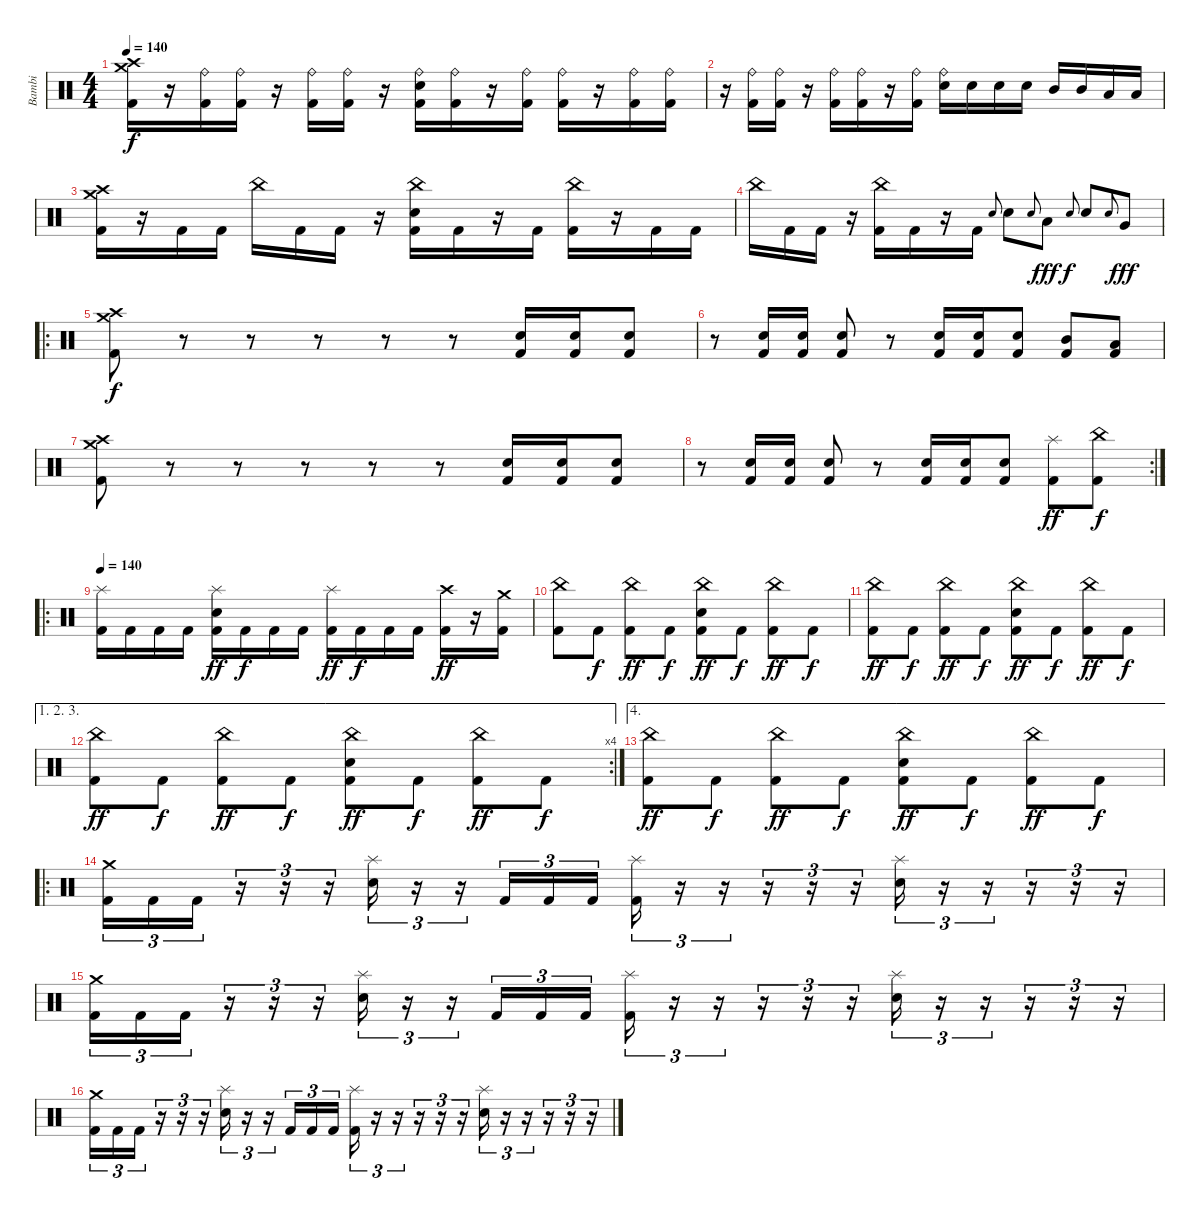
\track ("Bambi" "Bambi") {instrument percussion}
\staff {score}
\articulation defaults
\ts (4 4)
\tempo 140
\clef neutral
\ks c
("Kick (hit) 2" "Crash high (hit)" "Crash medium (hit)").16{dy f} r.16 ("Ride (bell)" "Kick (hit) 2").16 ("Ride (bell)" "Kick (hit) 2").16 r.16 ("Ride (bell)" "Kick (hit) 2").16 ("Kick (hit) 2" "Ride (bell)").16 r.16 ("Ride (bell)" "Electric Snare (hit)" "Kick (hit) 2").16 ("Kick (hit) 2" "Ride (bell)").16 r.16 ("Kick (hit) 2" "Ride (bell)").16 ("Kick (hit) 2" "Ride (bell)").16 r.16 ("Ride (bell)" "Kick (hit) 2").16 ("Kick (hit) 2" "Ride (bell)").16 |
r.16 ("Ride (bell)" "Kick (hit) 2").16 ("Ride (bell)" "Kick (hit) 2").16 r.16 ("Ride (bell)" "Kick (hit) 2").16 ("Ride (bell)" "Kick (hit) 2").16 r.16 ("Ride (bell)" "Kick (hit) 2").16 ("Ride (bell)" "Electric Snare (hit)").16 "Electric Snare (hit)".16 "Electric Snare (hit)".16 "Electric Snare (hit)".16 "Mid Tom (hit)".16 "Mid Tom (hit)".16 "Low Tom (hit)".16 "Low Tom (hit)".16 |
("Kick (hit) 2" "Crash high (hit)" "Crash medium (hit)").16 r.16 "Kick (hit) 2".16 "Kick (hit) 2".16 "China (hit)".16 "Kick (hit) 2".16 "Kick (hit) 2".16 r.16 ("China (hit)" "Electric Snare (hit)" "Kick (hit) 2").16 "Kick (hit) 2".16 r.16 "Kick (hit) 2".16 ("Kick (hit) 2" "China (hit)").16 r.16 "Kick (hit) 2".16 "Kick (hit) 2".16 |
"China (hit)".16 "Kick (hit) 2".16 "Kick (hit) 2".16 r.16 ("China (hit)" "Kick (hit) 2").16 "Kick (hit) 2".16 r.16 "Kick (hit) 2".16 "Snare (hit)".8{gr onbeat} "Electric Snare (hit)".8 "Snare (hit)".8{gr onbeat} "Low Tom (hit)".8{dy fff} "Snare (hit)".8{gr onbeat dy f} "Electric Snare (hit)".8 "Snare (hit)".8{gr onbeat} "Very Low Tom (hit)".8{dy fff} |
\ro
("Crash medium (hit)" "Crash high (hit)" "Kick (hit) 2").8{dy f} r.8 r.8 r.8 r.8 r.8 ("Electric Snare (hit)" "Kick (hit) 2").16 ("Electric Snare (hit)" "Kick (hit) 2").16 ("Electric Snare (hit)" "Kick (hit) 2").8 |
r.8 ("Electric Snare (hit)" "Kick (hit) 2").16 ("Electric Snare (hit)" "Kick (hit) 2").16 ("Electric Snare (hit)" "Kick (hit) 2").8 r.8 ("Kick (hit) 2" "Electric Snare (hit)").16 ("Kick (hit) 2" "Electric Snare (hit)").16 ("Kick (hit) 2" "Electric Snare (hit)").8 ("Mid Tom (hit)" "Kick (hit) 2").8 ("Low Tom (hit)" "Kick (hit) 2").8 |
("Crash medium (hit)" "Crash high (hit)" "Kick (hit) 2").8 r.8 r.8 r.8 r.8 r.8 ("Electric Snare (hit)" "Kick (hit) 2").16 ("Electric Snare (hit)" "Kick (hit) 2").16 ("Electric Snare (hit)" "Kick (hit) 2").8 |
\rc 2
r.8 ("Electric Snare (hit)" "Kick (hit) 2").16 ("Electric Snare (hit)" "Kick (hit) 2").16 ("Electric Snare (hit)" "Kick (hit) 2").8 r.8 ("Kick (hit) 2" "Electric Snare (hit)").16 ("Kick (hit) 2" "Electric Snare (hit)").16 ("Kick (hit) 2" "Electric Snare (hit)").8 ("Splash (hit)" "Kick (hit) 2").8{dy ff} ("China (hit)" "Kick (hit) 2").8{dy f} |
\ro
\tempo 140
("Splash (hit)" "Kick (hit) 2").16 "Kick (hit) 2".16 "Kick (hit) 2".16 "Kick (hit) 2".16 ("Splash (hit)" "Electric Snare (hit)" "Kick (hit) 2").16{dy ff} "Kick (hit) 2".16{dy f} "Kick (hit) 2".16 "Kick (hit) 2".16 ("Splash (hit)" "Kick (hit) 2").16{dy ff} "Kick (hit) 2".16{dy f} "Kick (hit) 2".16 "Kick (hit) 2".16 ("Crash high (hit)" "Kick (hit) 2").16{dy ff} r.16 ("Crash medium (hit)" "Kick (hit) 2").16 |
("China (hit)" "Kick (hit) 2").8 "Kick (hit) 2".8{dy f} ("China (hit)" "Kick (hit) 2").8{dy ff} "Kick (hit) 2".8{dy f} ("China (hit)" "Electric Snare (hit)" "Kick (hit) 2").8{dy ff} "Kick (hit) 2".8{dy f} ("China (hit)" "Kick (hit) 2").8{dy ff} "Kick (hit) 2".8{dy f} |
("China (hit)" "Kick (hit) 2").8{dy ff} "Kick (hit) 2".8{dy f} ("China (hit)" "Kick (hit) 2").8{dy ff} "Kick (hit) 2".8{dy f} ("China (hit)" "Electric Snare (hit)" "Kick (hit) 2").8{dy ff} "Kick (hit) 2".8{dy f} ("China (hit)" "Kick (hit) 2").8{dy ff} "Kick (hit) 2".8{dy f} |
\ae (1 2 3)
\rc 4
("China (hit)" "Kick (hit) 2").8{dy ff} "Kick (hit) 2".8{dy f} ("China (hit)" "Kick (hit) 2").8{dy ff} "Kick (hit) 2".8{dy f} ("China (hit)" "Electric Snare (hit)" "Kick (hit) 2").8{dy ff} "Kick (hit) 2".8{dy f} ("China (hit)" "Kick (hit) 2").8{dy ff} "Kick (hit) 2".8{dy f} |
\ae 4
("China (hit)" "Kick (hit) 2").8{dy ff} "Kick (hit) 2".8{dy f} ("China (hit)" "Kick (hit) 2").8{dy ff} "Kick (hit) 2".8{dy f} ("China (hit)" "Electric Snare (hit)" "Kick (hit) 2").8{dy ff} "Kick (hit) 2".8{dy f} ("China (hit)" "Kick (hit) 2").8{dy ff} "Kick (hit) 2".8{dy f} |
\ro
("Crash medium (hit)" "Kick (hit) 2").16{tu (3 2)} "Kick (hit) 2".16{tu (3 2)} "Kick (hit) 2".16{tu (3 2)} r.16{tu (3 2)} r.16{tu (3 2)} r.16{tu (3 2)} ("Splash (hit)" "Electric Snare (hit)").16{tu (3 2)} r.16{tu (3 2)} r.16{tu (3 2)} "Kick (hit) 2".16{tu (3 2)} "Kick (hit) 2".16{tu (3 2)} "Kick (hit) 2".16{tu (3 2)} ("Splash (hit)" "Kick (hit) 2").16{tu (3 2)} r.16{tu (3 2)} r.16{tu (3 2)} r.16{tu (3 2)} r.16{tu (3 2)} r.16{tu (3 2)} ("Splash (hit)" "Electric Snare (hit)").16{tu (3 2)} r.16{tu (3 2)} r.16{tu (3 2)} r.16{tu (3 2)} r.16{tu (3 2)} r.16{tu (3 2)} |
("Crash medium (hit)" "Kick (hit) 2").16{tu (3 2)} "Kick (hit) 2".16{tu (3 2)} "Kick (hit) 2".16{tu (3 2)} r.16{tu (3 2)} r.16{tu (3 2)} r.16{tu (3 2)} ("Splash (hit)" "Electric Snare (hit)").16{tu (3 2)} r.16{tu (3 2)} r.16{tu (3 2)} "Kick (hit) 2".16{tu (3 2)} "Kick (hit) 2".16{tu (3 2)} "Kick (hit) 2".16{tu (3 2)} ("Splash (hit)" "Kick (hit) 2").16{tu (3 2)} r.16{tu (3 2)} r.16{tu (3 2)} r.16{tu (3 2)} r.16{tu (3 2)} r.16{tu (3 2)} ("Splash (hit)" "Electric Snare (hit)").16{tu (3 2)} r.16{tu (3 2)} r.16{tu (3 2)} r.16{tu (3 2)} r.16{tu (3 2)} r.16{tu (3 2)} |
("Crash medium (hit)" "Kick (hit) 2").16{tu (3 2)} "Kick (hit) 2".16{tu (3 2)} "Kick (hit) 2".16{tu (3 2)} r.16{tu (3 2)} r.16{tu (3 2)} r.16{tu (3 2)} ("Splash (hit)" "Electric Snare (hit)").16{tu (3 2)} r.16{tu (3 2)} r.16{tu (3 2)} "Kick (hit) 2".16{tu (3 2)} "Kick (hit) 2".16{tu (3 2)} "Kick (hit) 2".16{tu (3 2)} ("Splash (hit)" "Kick (hit) 2").16{tu (3 2)} r.16{tu (3 2)} r.16{tu (3 2)} r.16{tu (3 2)} r.16{tu (3 2)} r.16{tu (3 2)} ("Splash (hit)" "Electric Snare (hit)").16{tu (3 2)} r.16{tu (3 2)} r.16{tu (3 2)} r.16{tu (3 2)} r.16{tu (3 2)} r.16{tu (3 2)}
